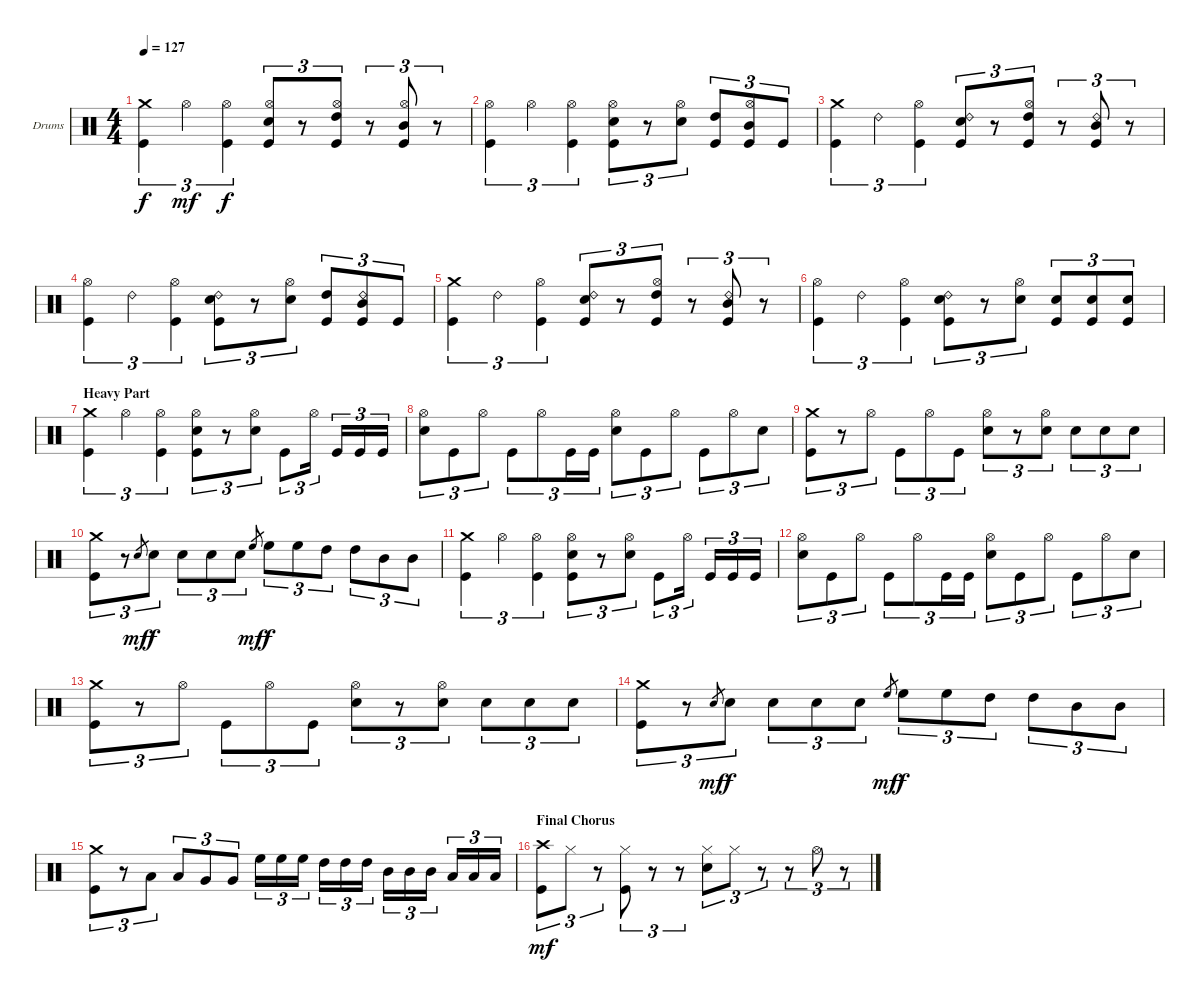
\bracketExtendMode groupsimilarinstruments
\firstSystemTrackNameOrientation horizontal
\otherSystemsTrackNameOrientation horizontal
\track ("Drumkit" "Drums") {instrument percussion}
\staff {score}
\articulation defaults
\ts (4 4)
\tempo 127
\clef neutral
\ks c
("Crash medium (hit)" "Kick (hit)").4{tu (3 2) dy f} "Hi-Hat (open)".4{tu (3 2) dy mf} ("Hi-Hat (open)" "Kick (hit)").4{tu (3 2) dy f} ("Hi-Hat (open)" "Snare (hit) 2" "Kick (hit)").8{tu (3 2)} r.8{tu (3 2)} ("Hi-Hat (open)" "High Tom (hit)" "Kick (hit)").8{tu (3 2)} r.8{tu (3 2)} ("Hi-Hat (open)" "Mid Tom (hit)" "Kick (hit)").8{tu (3 2)} r.8{tu (3 2)} |
("Hi-Hat (open)" "Kick (hit)").4{tu (3 2)} "Hi-Hat (open)".4{tu (3 2)} ("Hi-Hat (open)" "Kick (hit)").4{tu (3 2)} ("Hi-Hat (open)" "Snare (hit) 2" "Kick (hit)").8{tu (3 2)} r.8{tu (3 2)} ("Hi-Hat (open)" "Snare (hit) 2").8{tu (3 2)} ("High Tom (hit)" "Kick (hit)").8{tu (3 2)} ("Hi-Hat (open)" "Mid Tom (hit)" "Kick (hit)").8{tu (3 2)} "Kick (hit)".8{tu (3 2)} |
("Crash medium (hit)" "Kick (hit)").4{tu (3 2)} "Ride (bell) 2".4{tu (3 2)} ("Hi-Hat (open)" "Kick (hit)").4{tu (3 2)} ("Snare (hit) 2" "Kick (hit)" "Ride (bell) 2").8{tu (3 2)} r.8{tu (3 2)} ("Hi-Hat (open)" "High Tom (hit)" "Kick (hit)").8{tu (3 2)} r.8{tu (3 2)} ("Mid Tom (hit)" "Kick (hit)" "Ride (bell) 2").8{tu (3 2)} r.8{tu (3 2)} |
("Hi-Hat (open)" "Kick (hit)").4{tu (3 2)} "Ride (bell) 2".4{tu (3 2)} ("Hi-Hat (open)" "Kick (hit)").4{tu (3 2)} ("Snare (hit) 2" "Kick (hit)" "Ride (bell) 2").8{tu (3 2)} r.8{tu (3 2)} ("Hi-Hat (open)" "Snare (hit) 2").8{tu (3 2)} ("High Tom (hit)" "Kick (hit)").8{tu (3 2)} ("Mid Tom (hit)" "Kick (hit)" "Ride (bell) 2").8{tu (3 2)} "Kick (hit)".8{tu (3 2)} |
("Crash medium (hit)" "Kick (hit)").4{tu (3 2)} "Ride (bell) 2".4{tu (3 2)} ("Hi-Hat (open)" "Kick (hit)").4{tu (3 2)} ("Snare (hit) 2" "Kick (hit)" "Ride (bell) 2").8{tu (3 2)} r.8{tu (3 2)} ("Hi-Hat (open)" "High Tom (hit)" "Kick (hit)").8{tu (3 2)} r.8{tu (3 2)} ("Mid Tom (hit)" "Kick (hit)" "Ride (bell) 2").8{tu (3 2)} r.8{tu (3 2)} |
("Hi-Hat (open)" "Kick (hit)").4{tu (3 2)} "Ride (bell) 2".4{tu (3 2)} ("Hi-Hat (open)" "Kick (hit)").4{tu (3 2)} ("Snare (hit) 2" "Kick (hit)" "Ride (bell) 2").8{tu (3 2)} r.8{tu (3 2)} ("Hi-Hat (open)" "Snare (hit) 2").8{tu (3 2)} ("Snare (hit) 2" "Kick (hit)").8{tu (3 2)} ("Snare (hit) 2" "Kick (hit)").8{tu (3 2)} ("Snare (hit) 2" "Kick (hit)").8{tu (3 2)} |
\section ("" "Heavy Part")
("Crash medium (hit)" "Kick (hit)").4{tu (3 2)} "Hi-Hat (open)".4{tu (3 2)} ("Hi-Hat (open)" "Kick (hit)").4{tu (3 2)} ("Hi-Hat (open)" "Snare (hit) 2" "Kick (hit)").8{tu (3 2)} r.8{tu (3 2)} ("Hi-Hat (open)" "Snare (hit) 2").8{tu (3 2)} "Kick (hit)".8{tu (3 2)} "Hi-Hat (open)".16{tu (3 2)} "Kick (hit)".16{tu (3 2)} "Kick (hit)".16{tu (3 2)} "Kick (hit)".16{tu (3 2)} |
("Hi-Hat (open)" "Snare (hit) 2").8{tu (3 2)} "Kick (hit)".8{tu (3 2)} "Hi-Hat (open)".8{tu (3 2)} "Kick (hit)".8{tu (3 2)} "Hi-Hat (open)".8{tu (3 2)} "Kick (hit)".16{tu (3 2)} "Kick (hit)".16{tu (3 2)} ("Hi-Hat (open)" "Snare (hit) 2").8{tu (3 2)} "Kick (hit)".8{tu (3 2)} "Hi-Hat (open)".8{tu (3 2)} "Kick (hit)".8{tu (3 2)} "Hi-Hat (open)".8{tu (3 2)} "Snare (hit) 2".8{tu (3 2)} |
("Crash medium (hit)" "Kick (hit)").8{tu (3 2)} r.8{tu (3 2)} "Hi-Hat (open)".8{tu (3 2)} "Kick (hit)".8{tu (3 2)} "Hi-Hat (open)".8{tu (3 2)} "Kick (hit)".8{tu (3 2)} ("Hi-Hat (open)" "Snare (hit) 2").8{tu (3 2)} r.8{tu (3 2)} ("Hi-Hat (open)" "Snare (hit) 2").8{tu (3 2)} "Snare (hit) 2".8{tu (3 2)} "Snare (hit) 2".8{tu (3 2)} "Snare (hit) 2".8{tu (3 2)} |
("Crash medium (hit)" "Kick (hit)").8{tu (3 2)} r.8{tu (3 2)} "Snare (hit) 2".8{gr dy mf} "Snare (hit) 2".8{tu (3 2) dy f} "Snare (hit) 2".8{tu (3 2)} "Snare (hit) 2".8{tu (3 2)} "Snare (hit) 2".8{tu (3 2)} "High Floor Tom (hit)".8{gr dy mf} "High Floor Tom (hit)".8{tu (3 2) dy f} "High Floor Tom (hit)".8{tu (3 2)} "High Tom (hit)".8{tu (3 2)} "High Tom (hit)".8{tu (3 2)} "Mid Tom (hit)".8{tu (3 2)} "Mid Tom (hit)".8{tu (3 2)} |
("Crash medium (hit)" "Kick (hit)").4{tu (3 2)} "Hi-Hat (open)".4{tu (3 2)} ("Hi-Hat (open)" "Kick (hit)").4{tu (3 2)} ("Hi-Hat (open)" "Snare (hit) 2" "Kick (hit)").8{tu (3 2)} r.8{tu (3 2)} ("Hi-Hat (open)" "Snare (hit) 2").8{tu (3 2)} "Kick (hit)".8{tu (3 2)} "Hi-Hat (open)".16{tu (3 2)} "Kick (hit)".16{tu (3 2)} "Kick (hit)".16{tu (3 2)} "Kick (hit)".16{tu (3 2)} |
("Hi-Hat (open)" "Snare (hit) 2").8{tu (3 2)} "Kick (hit)".8{tu (3 2)} "Hi-Hat (open)".8{tu (3 2)} "Kick (hit)".8{tu (3 2)} "Hi-Hat (open)".8{tu (3 2)} "Kick (hit)".16{tu (3 2)} "Kick (hit)".16{tu (3 2)} ("Hi-Hat (open)" "Snare (hit) 2").8{tu (3 2)} "Kick (hit)".8{tu (3 2)} "Hi-Hat (open)".8{tu (3 2)} "Kick (hit)".8{tu (3 2)} "Hi-Hat (open)".8{tu (3 2)} "Snare (hit) 2".8{tu (3 2)} |
("Crash medium (hit)" "Kick (hit)").8{tu (3 2)} r.8{tu (3 2)} "Hi-Hat (open)".8{tu (3 2)} "Kick (hit)".8{tu (3 2)} "Hi-Hat (open)".8{tu (3 2)} "Kick (hit)".8{tu (3 2)} ("Hi-Hat (open)" "Snare (hit) 2").8{tu (3 2)} r.8{tu (3 2)} ("Hi-Hat (open)" "Snare (hit) 2").8{tu (3 2)} "Snare (hit) 2".8{tu (3 2)} "Snare (hit) 2".8{tu (3 2)} "Snare (hit) 2".8{tu (3 2)} |
("Crash medium (hit)" "Kick (hit)").8{tu (3 2)} r.8{tu (3 2)} "Snare (hit) 2".8{gr dy mf} "Snare (hit) 2".8{tu (3 2) dy f} "Snare (hit) 2".8{tu (3 2)} "Snare (hit) 2".8{tu (3 2)} "Snare (hit) 2".8{tu (3 2)} "High Floor Tom (hit)".8{gr dy mf} "High Floor Tom (hit)".8{tu (3 2) dy f} "High Floor Tom (hit)".8{tu (3 2)} "High Tom (hit)".8{tu (3 2)} "High Tom (hit)".8{tu (3 2)} "Mid Tom (hit)".8{tu (3 2)} "Mid Tom (hit)".8{tu (3 2)} |
("Crash medium (hit)" "Kick (hit)").8{tu (3 2)} r.8{tu (3 2)} "Low Tom (hit)".8{tu (3 2)} "Low Tom (hit)".8{tu (3 2)} "Very Low Tom (hit)".8{tu (3 2)} "Very Low Tom (hit)".8{tu (3 2)} "High Floor Tom (hit)".16{tu (3 2)} "High Floor Tom (hit)".16{tu (3 2)} "High Floor Tom (hit)".16{tu (3 2)} "High Tom (hit)".16{tu (3 2)} "High Tom (hit)".16{tu (3 2)} "High Tom (hit)".16{tu (3 2)} "Mid Tom (hit)".16{tu (3 2)} "Mid Tom (hit)".16{tu (3 2)} "Mid Tom (hit)".16{tu (3 2)} "Low Tom (hit)".16{tu (3 2)} "Low Tom (hit)".16{tu (3 2)} "Low Tom (hit)".16{tu (3 2)} |
\section ("" "Final Chorus")
("Kick (hit)" "Crash high (hit)").8{tu (3 2) dy mf} "Hi-Hat (closed)".8{tu (3 2)} r.8{tu (3 2)} ("Hi-Hat (closed)" "Kick (hit)").8{tu (3 2)} r.8{tu (3 2)} r.8{tu (3 2)} ("Snare (hit) 2" "Hi-Hat (closed)").8{tu (3 2)} "Hi-Hat (closed)".8{tu (3 2)} r.8{tu (3 2)} r.8{tu (3 2)} "Hi-Hat (open)".8{tu (3 2)} r.8{tu (3 2)}
